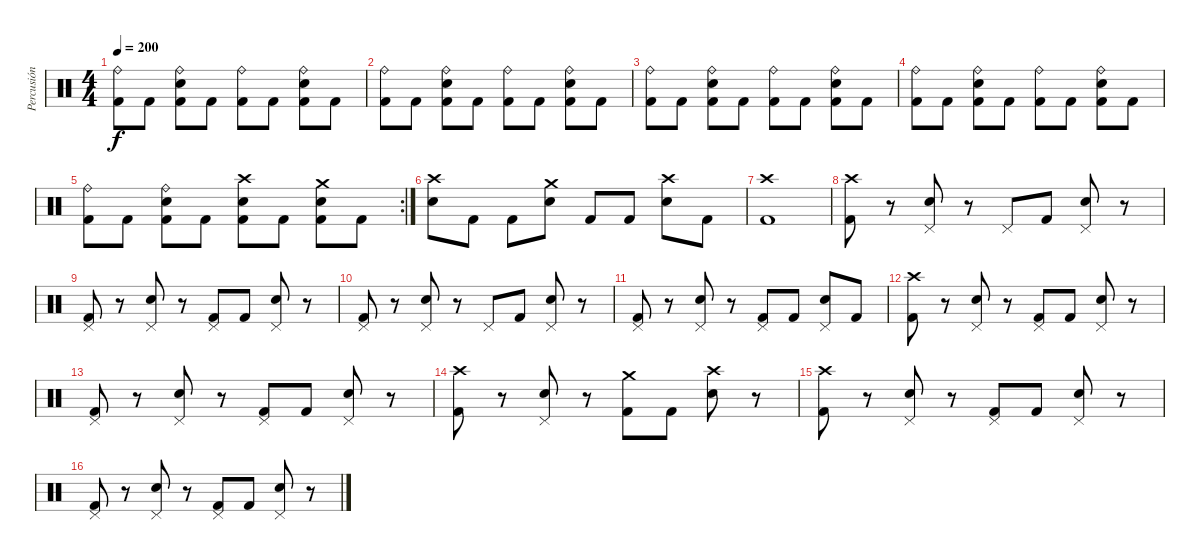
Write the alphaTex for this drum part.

\track ("Percusión" "Percusión") {instrument percussion}
\staff {score}
\articulation defaults
\ts (4 4)
\tempo 200
\clef neutral
\ks c
("Ride (bell)" "Kick (hit) 2").8{dy f} "Kick (hit) 2".8 ("Ride (bell)" "Kick (hit) 2" "Electric Snare (hit)").8 "Kick (hit) 2".8 ("Ride (bell)" "Kick (hit) 2").8 "Kick (hit) 2".8 ("Ride (bell)" "Kick (hit) 2" "Electric Snare (hit)").8 "Kick (hit) 2".8 |
("Ride (bell)" "Kick (hit) 2").8 "Kick (hit) 2".8 ("Ride (bell)" "Kick (hit) 2" "Electric Snare (hit)").8 "Kick (hit) 2".8 ("Ride (bell)" "Kick (hit) 2").8 "Kick (hit) 2".8 ("Ride (bell)" "Kick (hit) 2" "Electric Snare (hit)").8 "Kick (hit) 2".8 |
("Ride (bell)" "Kick (hit) 2").8 "Kick (hit) 2".8 ("Ride (bell)" "Kick (hit) 2" "Electric Snare (hit)").8 "Kick (hit) 2".8 ("Ride (bell)" "Kick (hit) 2").8 "Kick (hit) 2".8 ("Ride (bell)" "Kick (hit) 2" "Electric Snare (hit)").8 "Kick (hit) 2".8 |
("Ride (bell)" "Kick (hit) 2").8 "Kick (hit) 2".8 ("Ride (bell)" "Kick (hit) 2" "Electric Snare (hit)").8 "Kick (hit) 2".8 ("Ride (bell)" "Kick (hit) 2").8 "Kick (hit) 2".8 ("Ride (bell)" "Kick (hit) 2" "Electric Snare (hit)").8 "Kick (hit) 2".8 |
\rc 2
("Ride (bell)" "Kick (hit) 2").8 "Kick (hit) 2".8 ("Ride (bell)" "Kick (hit) 2" "Electric Snare (hit)").8 "Kick (hit) 2".8 ("Crash high (hit)" "Kick (hit) 2" "Electric Snare (hit)").8 "Kick (hit) 2".8 ("Crash medium (hit)" "Kick (hit) 2" "Electric Snare (hit)").8 "Kick (hit) 2".8 |
("Crash high (hit)" "Electric Snare (hit)").8 "Kick (hit) 2".8 "Kick (hit) 2".8 ("Crash medium (hit)" "Electric Snare (hit)").8 "Kick (hit) 2".8 "Kick (hit) 2".8 ("Crash high (hit)" "Electric Snare (hit)").8 "Kick (hit) 2".8 |
("Crash high (hit)" "Kick (hit) 2").1 |
("Crash high (hit)" "Kick (hit) 2").8 r.8 ("Pedal Hi-Hat (hit)" "Electric Snare (hit)").8 r.8 "Pedal Hi-Hat (hit)".8 "Kick (hit) 2".8 ("Pedal Hi-Hat (hit)" "Electric Snare (hit)").8 r.8 |
("Pedal Hi-Hat (hit)" "Kick (hit) 2").8 r.8 ("Pedal Hi-Hat (hit)" "Electric Snare (hit)").8 r.8 ("Pedal Hi-Hat (hit)" "Kick (hit) 2").8 "Kick (hit) 2".8 ("Pedal Hi-Hat (hit)" "Electric Snare (hit)").8 r.8 |
("Pedal Hi-Hat (hit)" "Kick (hit) 2").8 r.8 ("Pedal Hi-Hat (hit)" "Electric Snare (hit)").8 r.8 "Pedal Hi-Hat (hit)".8 "Kick (hit) 2".8 ("Pedal Hi-Hat (hit)" "Electric Snare (hit)").8 r.8 |
("Pedal Hi-Hat (hit)" "Kick (hit) 2").8 r.8 ("Pedal Hi-Hat (hit)" "Electric Snare (hit)").8 r.8 ("Pedal Hi-Hat (hit)" "Kick (hit) 2").8 "Kick (hit) 2".8 ("Pedal Hi-Hat (hit)" "Electric Snare (hit)").8 "Kick (hit) 2".8 |
("Crash high (hit)" "Kick (hit) 2").8 r.8 ("Pedal Hi-Hat (hit)" "Electric Snare (hit)").8 r.8 ("Pedal Hi-Hat (hit)" "Kick (hit) 2").8 "Kick (hit) 2".8 ("Pedal Hi-Hat (hit)" "Electric Snare (hit)").8 r.8 |
("Pedal Hi-Hat (hit)" "Kick (hit) 2").8 r.8 ("Pedal Hi-Hat (hit)" "Electric Snare (hit)").8 r.8 ("Pedal Hi-Hat (hit)" "Kick (hit) 2").8 "Kick (hit) 2".8 ("Pedal Hi-Hat (hit)" "Electric Snare (hit)").8 r.8 |
("Crash high (hit)" "Kick (hit) 2").8 r.8 ("Pedal Hi-Hat (hit)" "Electric Snare (hit)").8 r.8 ("Crash medium (hit)" "Kick (hit) 2").8 "Kick (hit) 2".8 ("Crash high (hit)" "Electric Snare (hit)").8 r.8 |
("Crash high (hit)" "Kick (hit) 2").8 r.8 ("Pedal Hi-Hat (hit)" "Electric Snare (hit)").8 r.8 ("Pedal Hi-Hat (hit)" "Kick (hit) 2").8 "Kick (hit) 2".8 ("Pedal Hi-Hat (hit)" "Electric Snare (hit)").8 r.8 |
("Pedal Hi-Hat (hit)" "Kick (hit) 2").8 r.8 ("Pedal Hi-Hat (hit)" "Electric Snare (hit)").8 r.8 ("Pedal Hi-Hat (hit)" "Kick (hit) 2").8 "Kick (hit) 2".8 ("Pedal Hi-Hat (hit)" "Electric Snare (hit)").8 r.8
